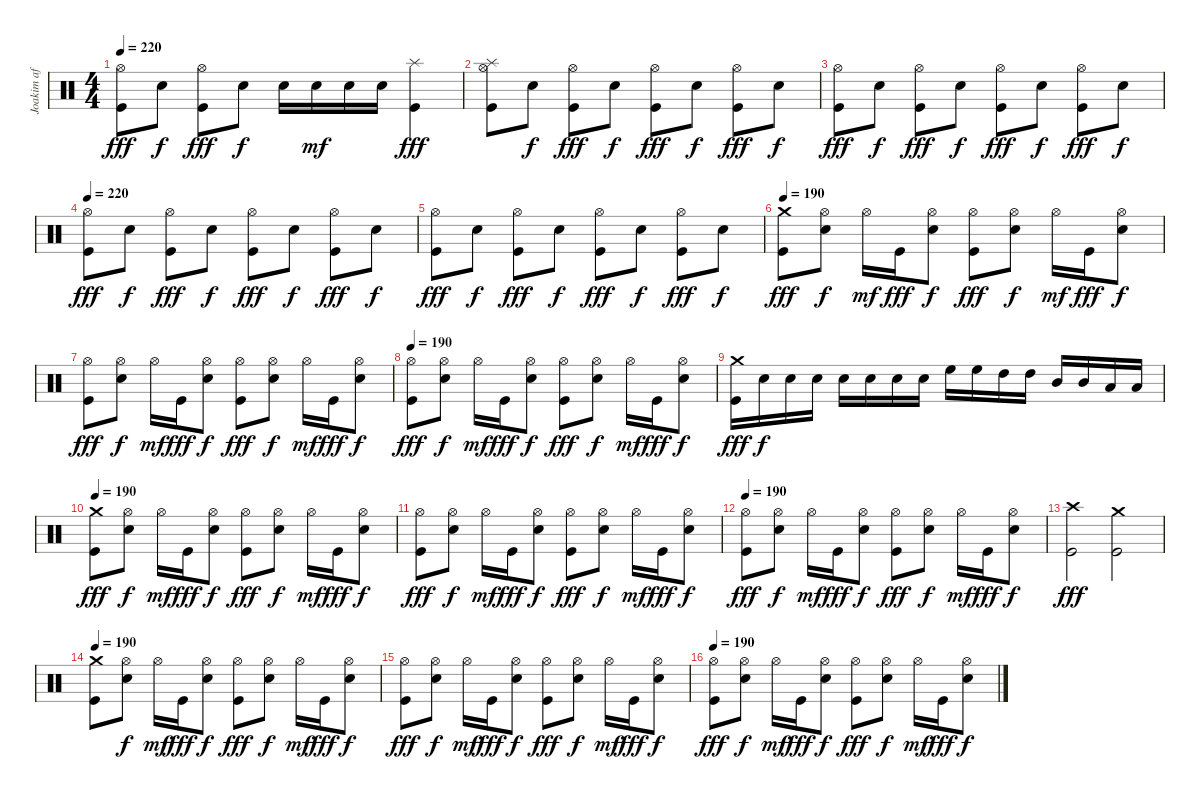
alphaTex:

\track ("Joakim af Grave" "Joakim af ") {instrument percussion}
\staff {score}
\articulation defaults
\ts (4 4)
\tempo 220
\clef neutral
\ks c
("Hi-Hat (open)" "Kick (hit)").8{dy fff} "Electric Snare (hit)".8{dy f} ("Hi-Hat (open)" "Kick (hit)").8{dy fff} "Electric Snare (hit)".8{dy f} "Electric Snare (hit)".16 "Electric Snare (hit)".16{dy mf} "Electric Snare (hit)".16 "Electric Snare (hit)".16 ("Splash (hit)" "Kick (hit)").4{dy fff} |
("Splash (hit)" "Hi-Hat (open)" "Kick (hit)").8 "Electric Snare (hit)".8{dy f} ("Hi-Hat (open)" "Kick (hit)").8{dy fff} "Electric Snare (hit)".8{dy f} ("Hi-Hat (open)" "Kick (hit)").8{dy fff} "Electric Snare (hit)".8{dy f} ("Hi-Hat (open)" "Kick (hit)").8{dy fff} "Electric Snare (hit)".8{dy f} |
("Hi-Hat (open)" "Kick (hit)").8{dy fff} "Electric Snare (hit)".8{dy f} ("Hi-Hat (open)" "Kick (hit)").8{dy fff} "Electric Snare (hit)".8{dy f} ("Hi-Hat (open)" "Kick (hit)").8{dy fff} "Electric Snare (hit)".8{dy f} ("Hi-Hat (open)" "Kick (hit)").8{dy fff} "Electric Snare (hit)".8{dy f} |
\tempo 220
("Hi-Hat (open)" "Kick (hit)").8{dy fff} "Electric Snare (hit)".8{dy f} ("Hi-Hat (open)" "Kick (hit)").8{dy fff} "Electric Snare (hit)".8{dy f} ("Hi-Hat (open)" "Kick (hit)").8{dy fff} "Electric Snare (hit)".8{dy f} ("Hi-Hat (open)" "Kick (hit)").8{dy fff} "Electric Snare (hit)".8{dy f} |
("Hi-Hat (open)" "Kick (hit)").8{dy fff} "Electric Snare (hit)".8{dy f} ("Hi-Hat (open)" "Kick (hit)").8{dy fff} "Electric Snare (hit)".8{dy f} ("Hi-Hat (open)" "Kick (hit)").8{dy fff} "Electric Snare (hit)".8{dy f} ("Hi-Hat (open)" "Kick (hit)").8{dy fff} "Electric Snare (hit)".8{dy f} |
\tempo 190
("Crash medium (hit)" "Kick (hit)").8{dy fff} ("Hi-Hat (open)" "Electric Snare (hit)").8{dy f} "Hi-Hat (open)".16{dy mf} "Kick (hit)".16{dy fff} ("Hi-Hat (open)" "Electric Snare (hit)").8{dy f} ("Hi-Hat (open)" "Kick (hit)").8{dy fff} ("Hi-Hat (open)" "Electric Snare (hit)").8{dy f} "Hi-Hat (open)".16{dy mf} "Kick (hit)".16{dy fff} ("Hi-Hat (open)" "Electric Snare (hit)").8{dy f} |
("Hi-Hat (open)" "Kick (hit)").8{dy fff} ("Hi-Hat (open)" "Electric Snare (hit)").8{dy f} "Hi-Hat (open)".16{dy mf} "Kick (hit)".16{dy fff} ("Hi-Hat (open)" "Electric Snare (hit)").8{dy f} ("Hi-Hat (open)" "Kick (hit)").8{dy fff} ("Hi-Hat (open)" "Electric Snare (hit)").8{dy f} "Hi-Hat (open)".16{dy mf} "Kick (hit)".16{dy fff} ("Hi-Hat (open)" "Electric Snare (hit)").8{dy f} |
\tempo 190
("Hi-Hat (open)" "Kick (hit)").8{dy fff} ("Hi-Hat (open)" "Electric Snare (hit)").8{dy f} "Hi-Hat (open)".16{dy mf} "Kick (hit)".16{dy fff} ("Hi-Hat (open)" "Electric Snare (hit)").8{dy f} ("Hi-Hat (open)" "Kick (hit)").8{dy fff} ("Hi-Hat (open)" "Electric Snare (hit)").8{dy f} "Hi-Hat (open)".16{dy mf} "Kick (hit)".16{dy fff} ("Hi-Hat (open)" "Electric Snare (hit)").8{dy f} |
("Crash medium (hit)" "Kick (hit)").16{dy fff} "Electric Snare (hit)".16{dy f} "Electric Snare (hit)".16 "Electric Snare (hit)".16 "Electric Snare (hit)".16 "Electric Snare (hit)".16 "Electric Snare (hit)".16 "Electric Snare (hit)".16 "High Floor Tom (hit)".16 "High Floor Tom (hit)".16 "High Tom (hit)".16 "High Tom (hit)".16 "Mid Tom (hit)".16 "Mid Tom (hit)".16 "Low Tom (hit)".16 "Low Tom (hit)".16 |
\tempo 190
("Crash medium (hit)" "Kick (hit)").8{dy fff} ("Hi-Hat (open)" "Electric Snare (hit)").8{dy f} "Hi-Hat (open)".16{dy mf} "Kick (hit)".16{dy fff} ("Hi-Hat (open)" "Electric Snare (hit)").8{dy f} ("Hi-Hat (open)" "Kick (hit)").8{dy fff} ("Hi-Hat (open)" "Electric Snare (hit)").8{dy f} "Hi-Hat (open)".16{dy mf} "Kick (hit)".16{dy fff} ("Hi-Hat (open)" "Electric Snare (hit)").8{dy f} |
("Hi-Hat (open)" "Kick (hit)").8{dy fff} ("Hi-Hat (open)" "Electric Snare (hit)").8{dy f} "Hi-Hat (open)".16{dy mf} "Kick (hit)".16{dy fff} ("Hi-Hat (open)" "Electric Snare (hit)").8{dy f} ("Hi-Hat (open)" "Kick (hit)").8{dy fff} ("Hi-Hat (open)" "Electric Snare (hit)").8{dy f} "Hi-Hat (open)".16{dy mf} "Kick (hit)".16{dy fff} ("Hi-Hat (open)" "Electric Snare (hit)").8{dy f} |
\tempo 190
("Hi-Hat (open)" "Kick (hit)").8{dy fff} ("Hi-Hat (open)" "Electric Snare (hit)").8{dy f} "Hi-Hat (open)".16{dy mf} "Kick (hit)".16{dy fff} ("Hi-Hat (open)" "Electric Snare (hit)").8{dy f} ("Hi-Hat (open)" "Kick (hit)").8{dy fff} ("Hi-Hat (open)" "Electric Snare (hit)").8{dy f} "Hi-Hat (open)".16{dy mf} "Kick (hit)".16{dy fff} ("Hi-Hat (open)" "Electric Snare (hit)").8{dy f} |
("Crash high (hit)" "Kick (hit)").2{dy fff} ("Crash medium (hit)" "Kick (hit)").2 |
\tempo 190
("Crash medium (hit)" "Kick (hit)").8 ("Hi-Hat (open)" "Electric Snare (hit)").8{dy f} "Hi-Hat (open)".16{dy mf} "Kick (hit)".16{dy fff} ("Hi-Hat (open)" "Electric Snare (hit)").8{dy f} ("Hi-Hat (open)" "Kick (hit)").8{dy fff} ("Hi-Hat (open)" "Electric Snare (hit)").8{dy f} "Hi-Hat (open)".16{dy mf} "Kick (hit)".16{dy fff} ("Hi-Hat (open)" "Electric Snare (hit)").8{dy f} |
("Hi-Hat (open)" "Kick (hit)").8{dy fff} ("Hi-Hat (open)" "Electric Snare (hit)").8{dy f} "Hi-Hat (open)".16{dy mf} "Kick (hit)".16{dy fff} ("Hi-Hat (open)" "Electric Snare (hit)").8{dy f} ("Hi-Hat (open)" "Kick (hit)").8{dy fff} ("Hi-Hat (open)" "Electric Snare (hit)").8{dy f} "Hi-Hat (open)".16{dy mf} "Kick (hit)".16{dy fff} ("Hi-Hat (open)" "Electric Snare (hit)").8{dy f} |
\tempo 190
("Hi-Hat (open)" "Kick (hit)").8{dy fff} ("Hi-Hat (open)" "Electric Snare (hit)").8{dy f} "Hi-Hat (open)".16{dy mf} "Kick (hit)".16{dy fff} ("Hi-Hat (open)" "Electric Snare (hit)").8{dy f} ("Hi-Hat (open)" "Kick (hit)").8{dy fff} ("Hi-Hat (open)" "Electric Snare (hit)").8{dy f} "Hi-Hat (open)".16{dy mf} "Kick (hit)".16{dy fff} ("Hi-Hat (open)" "Electric Snare (hit)").8{dy f}
